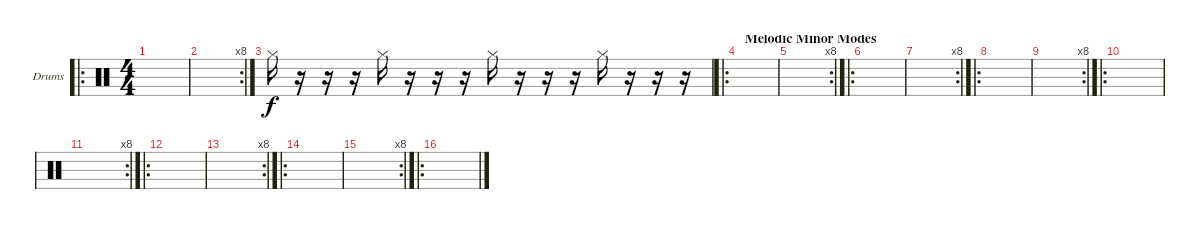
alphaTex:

\defaultSystemsLayout 4
\bracketExtendMode groupsimilarinstruments
\firstSystemTrackNameOrientation horizontal
\otherSystemsTrackNameOrientation horizontal
\track ("Drumkit" "Drums") {instrument percussion}
\staff {score}
\articulation defaults
\ro
\ts (4 4)
\tempo (125 hide)
\clef neutral
\scale
0.343284
\ks c
|
\rc 8
\scale
0.333333 |
\scale
0.301587 "Hi-Hat (closed)".16 r.16 r.16 r.16 "Hi-Hat (closed)".16 r.16 r.16 r.16 "Hi-Hat (closed)".16 r.16 r.16 r.16 "Hi-Hat (closed)".16 r.16 r.16 r.16 |
\ro
\section ("" " Melodic Minor Modes")
\scale
0.365079 |
\rc 8
\scale
0.323077 |
\ro
\scale
0.353846 |
\rc 8
\scale
0.323077 |
\ro
\scale
0.343284 |
\rc 8
\scale
0.313433 |
\ro
\scale
0.343284 |
\rc 8
\scale
0.323077 |
\ro
\scale
0.353846 |
\rc 8
\scale
0.323077 |
\ro
\scale
0.343284 |
\rc 8
\scale
0.313433 |
\ro
\scale
0.343284
